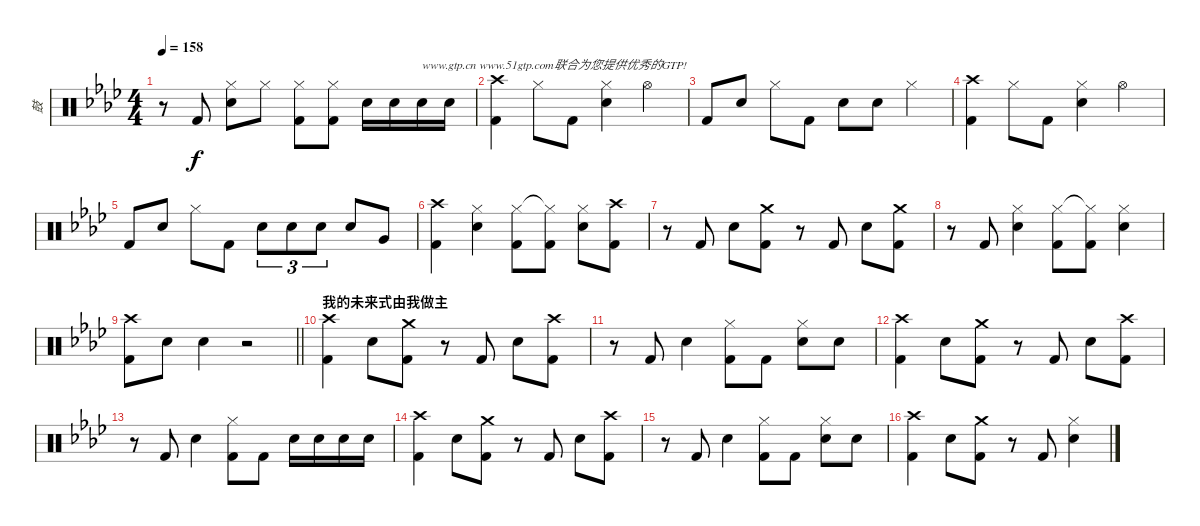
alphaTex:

\track ("鼓" "鼓") {instrument percussion}
\staff {score}
\articulation defaults
\ts (4 4)
\tempo 158
\clef neutral
\ks ab
r.8{dy f} "Kick (hit) 2".8 ("Hi-Hat (closed)" "Electric Snare (hit)").8 "Hi-Hat (closed)".8 ("Hi-Hat (closed)" "Kick (hit) 2").8 ("Hi-Hat (closed)" "Kick (hit) 2").8 "Electric Snare (hit)".16 "Electric Snare (hit)".16 "Electric Snare (hit)".16{txt "www.gtp.cn www.51gtp.com联合为您提供优秀的GTP!"} "Electric Snare (hit)".16 |
("Crash high (hit)" "Kick (hit) 2").4 "Hi-Hat (closed)".8 "Kick (hit) 2".8 ("Hi-Hat (closed)" "Electric Snare (hit)").4 "Hi-Hat (open)".4 |
"Kick (hit) 2".8 "Electric Snare (hit)".8 "Hi-Hat (closed)".8 "Kick (hit) 2".8 "Electric Snare (hit)".8 "Electric Snare (hit)".8 "Hi-Hat (closed)".4 |
("Crash high (hit)" "Kick (hit) 2").4 "Hi-Hat (closed)".8 "Kick (hit) 2".8 ("Hi-Hat (closed)" "Electric Snare (hit)").4 "Hi-Hat (open)".4 |
"Kick (hit) 2".8 "Electric Snare (hit)".8 "Hi-Hat (closed)".8 "Kick (hit) 2".8 "Electric Snare (hit)".8{tu (3 2)} "Electric Snare (hit)".8{tu (3 2)} "Electric Snare (hit)".8{tu (3 2)} "Electric Snare (hit)".8 "Very Low Tom (hit)".8 |
("Crash high (hit)" "Kick (hit) 2").4 ("Hi-Hat (closed)" "Snare (hit) 2").4 ("Hi-Hat (closed)" "Kick (hit) 2").8 ("Hi-Hat (closed)"{t} "Kick (hit) 2").8 ("Hi-Hat (closed)" "Electric Snare (hit)").8 ("Crash high (hit)" "Kick (hit) 2").8 |
r.8 "Kick (hit) 2".8 "Electric Snare (hit)".8 ("Crash medium (hit)" "Kick (hit) 2").8 r.8 "Kick (hit) 2".8 "Electric Snare (hit)".8 ("Crash medium (hit)" "Kick (hit) 2").8 |
r.8 "Kick (hit) 2".8 ("Hi-Hat (closed)" "Electric Snare (hit)").4 ("Hi-Hat (closed)" "Kick (hit) 2").8 ("Hi-Hat (closed)"{t} "Kick (hit) 2").8 ("Hi-Hat (closed)" "Electric Snare (hit)").4 |
\barLineRight lightlight
("Crash high (hit)" "Kick (hit) 2").8 "Electric Snare (hit)".8 "Electric Snare (hit)".4 r.2 |
\section ("" "我的未来式由我做主")
("Crash high (hit)" "Kick (hit) 2").4 "Electric Snare (hit)".8 ("Crash medium (hit)" "Kick (hit) 2").8 r.8 "Kick (hit) 2".8 "Electric Snare (hit)".8 ("Crash high (hit)" "Kick (hit) 2").8 |
r.8 "Kick (hit) 2".8 "Electric Snare (hit)".4 ("Hi-Hat (closed)" "Kick (hit) 2").8 "Kick (hit) 2".8 ("Hi-Hat (closed)" "Electric Snare (hit)").8 "Electric Snare (hit)".8 |
("Crash high (hit)" "Kick (hit) 2").4 "Electric Snare (hit)".8 ("Crash medium (hit)" "Kick (hit) 2").8 r.8 "Kick (hit) 2".8 "Electric Snare (hit)".8 ("Crash high (hit)" "Kick (hit) 2").8 |
r.8 "Kick (hit) 2".8 "Electric Snare (hit)".4 ("Hi-Hat (closed)" "Kick (hit) 2").8 "Kick (hit) 2".8 "Electric Snare (hit)".16 "Electric Snare (hit)".16 "Electric Snare (hit)".16 "Electric Snare (hit)".16 |
("Crash high (hit)" "Kick (hit) 2").4 "Electric Snare (hit)".8 ("Crash medium (hit)" "Kick (hit) 2").8 r.8 "Kick (hit) 2".8 "Electric Snare (hit)".8 ("Crash high (hit)" "Kick (hit) 2").8 |
r.8 "Kick (hit) 2".8 "Electric Snare (hit)".4 ("Hi-Hat (closed)" "Kick (hit) 2").8 "Kick (hit) 2".8 ("Hi-Hat (closed)" "Electric Snare (hit)").8 "Electric Snare (hit)".8 |
("Crash high (hit)" "Kick (hit) 2").4 "Electric Snare (hit)".8 ("Crash medium (hit)" "Kick (hit) 2").8 r.8 "Kick (hit) 2".8 ("Hi-Hat (closed)" "Electric Snare (hit)").4
